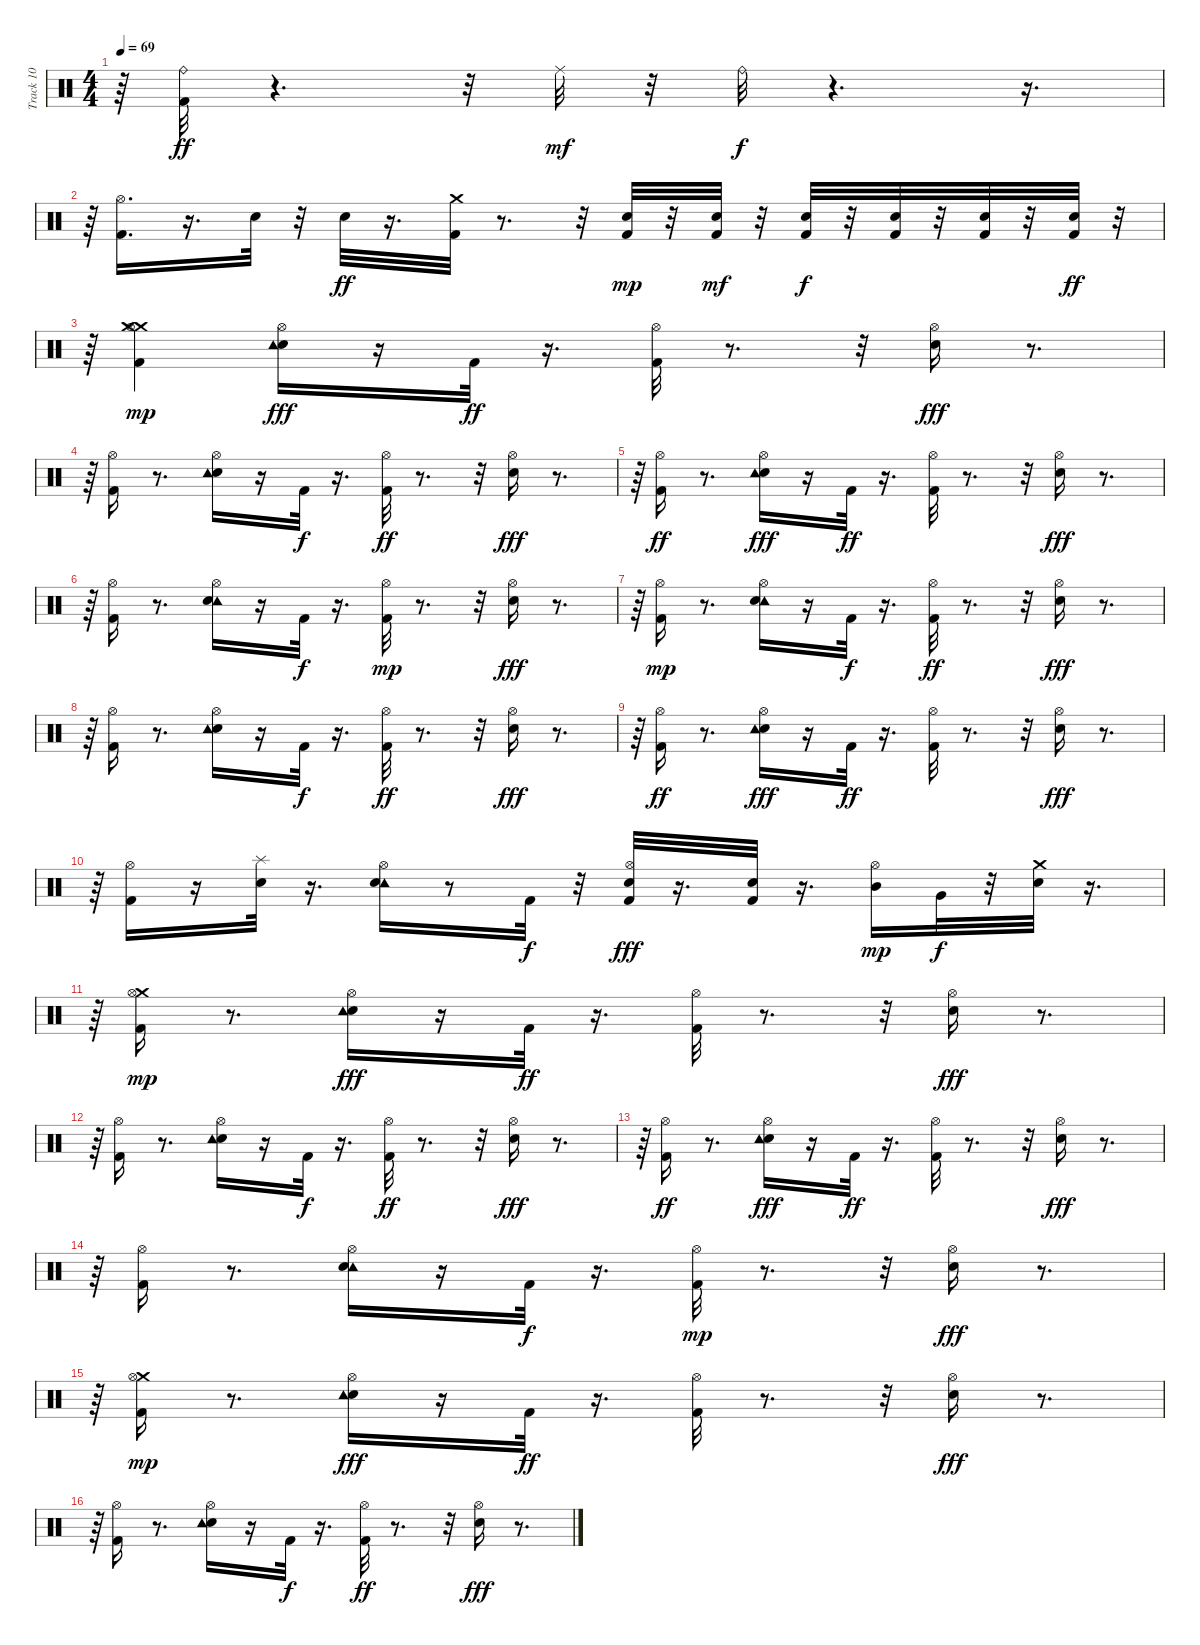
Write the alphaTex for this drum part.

\track ("Track 10" "Track 10") {instrument percussion}
\staff {score}
\articulation defaults
\ts (4 4)
\tempo 69
\clef neutral
\ks c
r.64{dy mp} ("Kick (hit) 2" "Ride (bell)").32{dy ff} r.4{d} r.32 "Ride (middle)".32{dy mf} r.32 "Ride (bell)".32{dy f} r.4{d} r.16{d} |
r.64 ("Kick (hit) 2" "Hi-Hat (open)").16{d} r.16{d} "Snare (hit) 2".32 r.32 "Snare (hit) 2".32{dy ff} r.16{d} ("Kick (hit) 2" "Crash medium (hit)").32 r.8{d} r.32 ("Kick (hit) 2" "Snare (hit) 2").32{dy mp} r.32 ("Kick (hit) 2" "Snare (hit) 2").32{dy mf} r.32 ("Kick (hit) 2" "Snare (hit) 2").32{dy f} r.32 ("Kick (hit) 2" "Snare (hit) 2").32 r.32 ("Snare (hit) 2" "Kick (hit) 2").32 r.32 ("Snare (hit) 2" "Kick (hit) 2").32{dy ff} r.32 |
r.64 ("Crash medium (hit)" "Crash medium (hit)" "Kick (hit) 2" "Hi-Hat (open)").4{dy mp} ("Hi-Hat (open)" "Snare (hit) 2" "Tambourine (hit)").16{dy fff} r.16 "Kick (hit) 2".32{dy ff} r.16{d} ("Hi-Hat (open)" "Kick (hit) 2").32 r.8{d} r.32 ("Hi-Hat (open)" "Snare (hit) 2").16{dy fff} r.8{d} |
r.64 ("Hi-Hat (open)" "Kick (hit) 2").16 r.8{d} ("Hi-Hat (open)" "Snare (hit) 2" "Tambourine (hit)").16 r.16 "Kick (hit) 2".32{dy f} r.16{d} ("Hi-Hat (open)" "Kick (hit) 2").32{dy ff} r.8{d} r.32 ("Hi-Hat (open)" "Snare (hit) 2").16{dy fff} r.8{d} |
r.64 ("Hi-Hat (open)" "Kick (hit) 2").16{dy ff} r.8{d} ("Snare (hit) 2" "Hi-Hat (open)" "Tambourine (hit)").16{dy fff} r.16 "Kick (hit) 2".32{dy ff} r.16{d} ("Hi-Hat (open)" "Kick (hit) 2").32 r.8{d} r.32 ("Hi-Hat (open)" "Snare (hit) 2").16{dy fff} r.8{d} |
r.64 ("Hi-Hat (open)" "Kick (hit) 2").16 r.8{d} ("Hi-Hat (open)" "Tambourine (hit)" "Snare (hit) 2").16 r.16 "Kick (hit) 2".32{dy f} r.16{d} ("Kick (hit) 2" "Hi-Hat (open)").32{dy mp} r.8{d} r.32 ("Hi-Hat (open)" "Snare (hit) 2").16{dy fff} r.8{d} |
r.64 ("Kick (hit) 2" "Hi-Hat (open)").16{dy mp} r.8{d} ("Tambourine (hit)" "Snare (hit) 2" "Hi-Hat (open)").16 r.16 "Kick (hit) 2".32{dy f} r.16{d} ("Hi-Hat (open)" "Kick (hit) 2").32{dy ff} r.8{d} r.32 ("Hi-Hat (open)" "Snare (hit) 2").16{dy fff} r.8{d} |
r.64 ("Hi-Hat (open)" "Kick (hit) 2").16 r.8{d} ("Hi-Hat (open)" "Snare (hit) 2" "Tambourine (hit)").16 r.16 "Kick (hit) 2".32{dy f} r.16{d} ("Hi-Hat (open)" "Kick (hit) 2").32{dy ff} r.8{d} r.32 ("Hi-Hat (open)" "Snare (hit) 2").16{dy fff} r.8{d} |
r.64 ("Hi-Hat (open)" "Kick (hit) 2").16{dy ff} r.8{d} ("Snare (hit) 2" "Hi-Hat (open)" "Tambourine (hit)").16{dy fff} r.16 "Kick (hit) 2".32{dy ff} r.16{d} ("Hi-Hat (open)" "Kick (hit) 2").32 r.8{d} r.32 ("Hi-Hat (open)" "Snare (hit) 2").16{dy fff} r.8{d} |
r.64 ("Hi-Hat (open)" "Kick (hit) 2").16 r.16 ("Splash (hit)" "Snare (hit) 2").32 r.16{d} ("Hi-Hat (open)" "Tambourine (hit)" "Snare (hit) 2").16 r.8 "Kick (hit) 2".32{dy f} r.32 ("Hi-Hat (open)" "Snare (hit) 2" "Kick (hit) 2").32{dy fff} r.16{d} ("Snare (hit) 2" "Kick (hit) 2").32 r.16{d} ("Mid Tom (hit)" "Hi-Hat (open)").16{dy mp} "Very Low Tom (hit)".32{dy f} r.32 ("Crash medium (hit)" "Snare (hit) 2").32 r.16{d} |
r.64 ("Crash medium (hit)" "Kick (hit) 2" "Hi-Hat (open)").16{dy mp} r.8{d} ("Hi-Hat (open)" "Snare (hit) 2" "Tambourine (hit)").16{dy fff} r.16 "Kick (hit) 2".32{dy ff} r.16{d} ("Hi-Hat (open)" "Kick (hit) 2").32 r.8{d} r.32 ("Hi-Hat (open)" "Snare (hit) 2").16{dy fff} r.8{d} |
r.64 ("Hi-Hat (open)" "Kick (hit) 2").16 r.8{d} ("Hi-Hat (open)" "Snare (hit) 2" "Tambourine (hit)").16 r.16 "Kick (hit) 2".32{dy f} r.16{d} ("Hi-Hat (open)" "Kick (hit) 2").32{dy ff} r.8{d} r.32 ("Hi-Hat (open)" "Snare (hit) 2").16{dy fff} r.8{d} |
r.64 ("Hi-Hat (open)" "Kick (hit) 2").16{dy ff} r.8{d} ("Snare (hit) 2" "Hi-Hat (open)" "Tambourine (hit)").16{dy fff} r.16 "Kick (hit) 2".32{dy ff} r.16{d} ("Hi-Hat (open)" "Kick (hit) 2").32 r.8{d} r.32 ("Hi-Hat (open)" "Snare (hit) 2").16{dy fff} r.8{d} |
r.64 ("Hi-Hat (open)" "Kick (hit) 2").16 r.8{d} ("Hi-Hat (open)" "Tambourine (hit)" "Snare (hit) 2").16 r.16 "Kick (hit) 2".32{dy f} r.16{d} ("Kick (hit) 2" "Hi-Hat (open)").32{dy mp} r.8{d} r.32 ("Hi-Hat (open)" "Snare (hit) 2").16{dy fff} r.8{d} |
r.64 ("Crash medium (hit)" "Kick (hit) 2" "Hi-Hat (open)").16{dy mp} r.8{d} ("Hi-Hat (open)" "Snare (hit) 2" "Tambourine (hit)").16{dy fff} r.16 "Kick (hit) 2".32{dy ff} r.16{d} ("Hi-Hat (open)" "Kick (hit) 2").32 r.8{d} r.32 ("Hi-Hat (open)" "Snare (hit) 2").16{dy fff} r.8{d} |
r.64 ("Hi-Hat (open)" "Kick (hit) 2").16 r.8{d} ("Hi-Hat (open)" "Snare (hit) 2" "Tambourine (hit)").16 r.16 "Kick (hit) 2".32{dy f} r.16{d} ("Hi-Hat (open)" "Kick (hit) 2").32{dy ff} r.8{d} r.32 ("Hi-Hat (open)" "Snare (hit) 2").16{dy fff} r.8{d}
